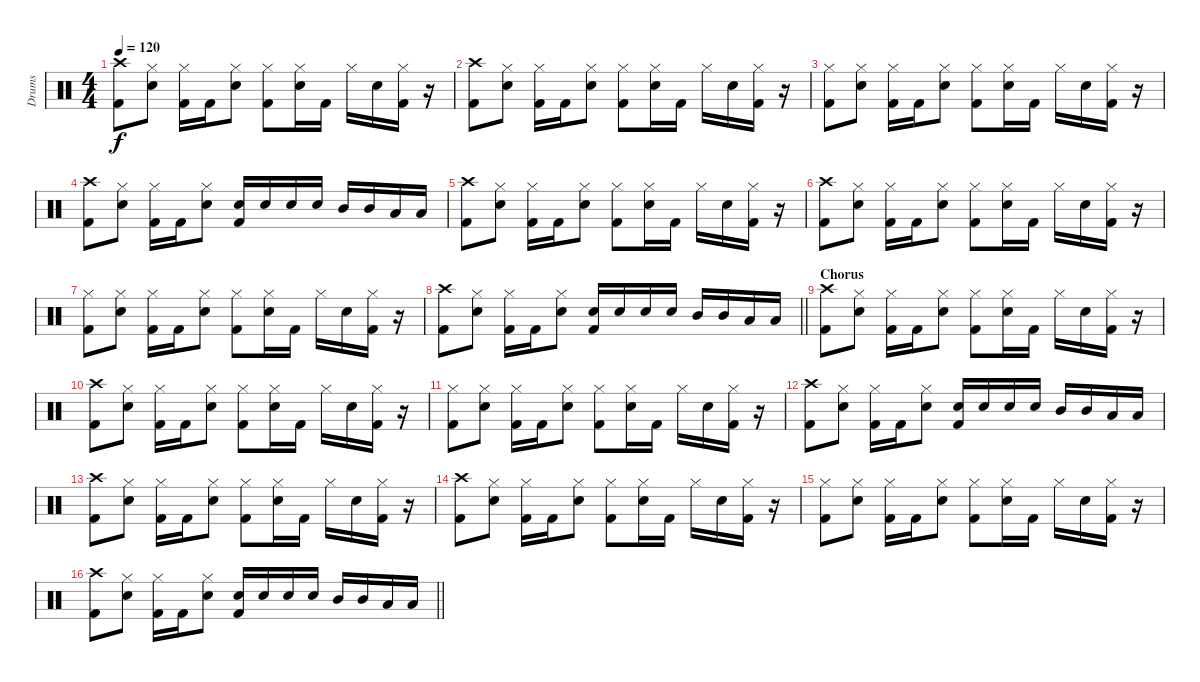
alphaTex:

\track ("Drums" "Drums") {instrument percussion}
\staff {score}
\articulation defaults
\ts (4 4)
\tempo 120
\clef neutral
\ks c
("Crash high (hit)" "Kick (hit) 2").8{dy f} ("Hi-Hat (closed)" "Snare (hit) 2").8 ("Hi-Hat (closed)" "Kick (hit) 2").16 "Kick (hit) 2".16 ("Hi-Hat (closed)" "Snare (hit) 2").8 ("Hi-Hat (closed)" "Kick (hit) 2").8 ("Hi-Hat (closed)" "Snare (hit) 2").16 "Kick (hit) 2".16 "Hi-Hat (closed)".16 "Snare (hit) 2".16 ("Hi-Hat (closed)" "Kick (hit) 2").16 r.16 |
("Crash high (hit)" "Kick (hit) 2").8 ("Hi-Hat (closed)" "Snare (hit) 2").8 ("Hi-Hat (closed)" "Kick (hit) 2").16 "Kick (hit) 2".16 ("Hi-Hat (closed)" "Snare (hit) 2").8 ("Hi-Hat (closed)" "Kick (hit) 2").8 ("Hi-Hat (closed)" "Snare (hit) 2").16 "Kick (hit) 2".16 "Hi-Hat (closed)".16 "Snare (hit) 2".16 ("Hi-Hat (closed)" "Kick (hit) 2").16 r.16 |
("Hi-Hat (closed)" "Kick (hit) 2").8 ("Hi-Hat (closed)" "Snare (hit) 2").8 ("Hi-Hat (closed)" "Kick (hit) 2").16 "Kick (hit) 2".16 ("Hi-Hat (closed)" "Snare (hit) 2").8 ("Hi-Hat (closed)" "Kick (hit) 2").8 ("Hi-Hat (closed)" "Snare (hit) 2").16 "Kick (hit) 2".16 "Hi-Hat (closed)".16 "Snare (hit) 2".16 ("Hi-Hat (closed)" "Kick (hit) 2").16 r.16 |
("Crash high (hit)" "Kick (hit) 2").8 ("Hi-Hat (closed)" "Snare (hit) 2").8 ("Hi-Hat (closed)" "Kick (hit) 2").16 "Kick (hit) 2".16 ("Hi-Hat (closed)" "Snare (hit) 2").8 ("Snare (hit) 2" "Kick (hit) 2").16 "Snare (hit) 2".16 "Snare (hit) 2".16 "Snare (hit) 2".16 "Mid Tom (hit)".16 "Mid Tom (hit)".16 "Low Tom (hit)".16 "Low Tom (hit)".16 |
("Crash high (hit)" "Kick (hit) 2").8 ("Hi-Hat (closed)" "Snare (hit) 2").8 ("Hi-Hat (closed)" "Kick (hit) 2").16 "Kick (hit) 2".16 ("Hi-Hat (closed)" "Snare (hit) 2").8 ("Hi-Hat (closed)" "Kick (hit) 2").8 ("Hi-Hat (closed)" "Snare (hit) 2").16 "Kick (hit) 2".16 "Hi-Hat (closed)".16 "Snare (hit) 2".16 ("Hi-Hat (closed)" "Kick (hit) 2").16 r.16 |
("Crash high (hit)" "Kick (hit) 2").8 ("Hi-Hat (closed)" "Snare (hit) 2").8 ("Hi-Hat (closed)" "Kick (hit) 2").16 "Kick (hit) 2".16 ("Hi-Hat (closed)" "Snare (hit) 2").8 ("Hi-Hat (closed)" "Kick (hit) 2").8 ("Hi-Hat (closed)" "Snare (hit) 2").16 "Kick (hit) 2".16 "Hi-Hat (closed)".16 "Snare (hit) 2".16 ("Hi-Hat (closed)" "Kick (hit) 2").16 r.16 |
("Hi-Hat (closed)" "Kick (hit) 2").8 ("Hi-Hat (closed)" "Snare (hit) 2").8 ("Hi-Hat (closed)" "Kick (hit) 2").16 "Kick (hit) 2".16 ("Hi-Hat (closed)" "Snare (hit) 2").8 ("Hi-Hat (closed)" "Kick (hit) 2").8 ("Hi-Hat (closed)" "Snare (hit) 2").16 "Kick (hit) 2".16 "Hi-Hat (closed)".16 "Snare (hit) 2".16 ("Hi-Hat (closed)" "Kick (hit) 2").16 r.16 |
\barLineRight lightlight
("Crash high (hit)" "Kick (hit) 2").8 ("Hi-Hat (closed)" "Snare (hit) 2").8 ("Hi-Hat (closed)" "Kick (hit) 2").16 "Kick (hit) 2".16 ("Hi-Hat (closed)" "Snare (hit) 2").8 ("Snare (hit) 2" "Kick (hit) 2").16 "Snare (hit) 2".16 "Snare (hit) 2".16 "Snare (hit) 2".16 "Mid Tom (hit)".16 "Mid Tom (hit)".16 "Low Tom (hit)".16 "Low Tom (hit)".16 |
\section ("" "Chorus")
("Crash high (hit)" "Kick (hit) 2").8 ("Hi-Hat (closed)" "Snare (hit) 2").8 ("Hi-Hat (closed)" "Kick (hit) 2").16 "Kick (hit) 2".16 ("Hi-Hat (closed)" "Snare (hit) 2").8 ("Hi-Hat (closed)" "Kick (hit) 2").8 ("Hi-Hat (closed)" "Snare (hit) 2").16 "Kick (hit) 2".16 "Hi-Hat (closed)".16 "Snare (hit) 2".16 ("Hi-Hat (closed)" "Kick (hit) 2").16 r.16 |
("Crash high (hit)" "Kick (hit) 2").8 ("Hi-Hat (closed)" "Snare (hit) 2").8 ("Hi-Hat (closed)" "Kick (hit) 2").16 "Kick (hit) 2".16 ("Hi-Hat (closed)" "Snare (hit) 2").8 ("Hi-Hat (closed)" "Kick (hit) 2").8 ("Hi-Hat (closed)" "Snare (hit) 2").16 "Kick (hit) 2".16 "Hi-Hat (closed)".16 "Snare (hit) 2".16 ("Hi-Hat (closed)" "Kick (hit) 2").16 r.16 |
("Hi-Hat (closed)" "Kick (hit) 2").8 ("Hi-Hat (closed)" "Snare (hit) 2").8 ("Hi-Hat (closed)" "Kick (hit) 2").16 "Kick (hit) 2".16 ("Hi-Hat (closed)" "Snare (hit) 2").8 ("Hi-Hat (closed)" "Kick (hit) 2").8 ("Hi-Hat (closed)" "Snare (hit) 2").16 "Kick (hit) 2".16 "Hi-Hat (closed)".16 "Snare (hit) 2".16 ("Hi-Hat (closed)" "Kick (hit) 2").16 r.16 |
("Crash high (hit)" "Kick (hit) 2").8 ("Hi-Hat (closed)" "Snare (hit) 2").8 ("Hi-Hat (closed)" "Kick (hit) 2").16 "Kick (hit) 2".16 ("Hi-Hat (closed)" "Snare (hit) 2").8 ("Snare (hit) 2" "Kick (hit) 2").16 "Snare (hit) 2".16 "Snare (hit) 2".16 "Snare (hit) 2".16 "Mid Tom (hit)".16 "Mid Tom (hit)".16 "Low Tom (hit)".16 "Low Tom (hit)".16 |
("Crash high (hit)" "Kick (hit) 2").8 ("Hi-Hat (closed)" "Snare (hit) 2").8 ("Hi-Hat (closed)" "Kick (hit) 2").16 "Kick (hit) 2".16 ("Hi-Hat (closed)" "Snare (hit) 2").8 ("Hi-Hat (closed)" "Kick (hit) 2").8 ("Hi-Hat (closed)" "Snare (hit) 2").16 "Kick (hit) 2".16 "Hi-Hat (closed)".16 "Snare (hit) 2".16 ("Hi-Hat (closed)" "Kick (hit) 2").16 r.16 |
("Crash high (hit)" "Kick (hit) 2").8 ("Hi-Hat (closed)" "Snare (hit) 2").8 ("Hi-Hat (closed)" "Kick (hit) 2").16 "Kick (hit) 2".16 ("Hi-Hat (closed)" "Snare (hit) 2").8 ("Hi-Hat (closed)" "Kick (hit) 2").8 ("Hi-Hat (closed)" "Snare (hit) 2").16 "Kick (hit) 2".16 "Hi-Hat (closed)".16 "Snare (hit) 2".16 ("Hi-Hat (closed)" "Kick (hit) 2").16 r.16 |
("Hi-Hat (closed)" "Kick (hit) 2").8 ("Hi-Hat (closed)" "Snare (hit) 2").8 ("Hi-Hat (closed)" "Kick (hit) 2").16 "Kick (hit) 2".16 ("Hi-Hat (closed)" "Snare (hit) 2").8 ("Hi-Hat (closed)" "Kick (hit) 2").8 ("Hi-Hat (closed)" "Snare (hit) 2").16 "Kick (hit) 2".16 "Hi-Hat (closed)".16 "Snare (hit) 2".16 ("Hi-Hat (closed)" "Kick (hit) 2").16 r.16 |
\barLineRight lightlight
("Crash high (hit)" "Kick (hit) 2").8 ("Hi-Hat (closed)" "Snare (hit) 2").8 ("Hi-Hat (closed)" "Kick (hit) 2").16 "Kick (hit) 2".16 ("Hi-Hat (closed)" "Snare (hit) 2").8 ("Snare (hit) 2" "Kick (hit) 2").16 "Snare (hit) 2".16 "Snare (hit) 2".16 "Snare (hit) 2".16 "Mid Tom (hit)".16 "Mid Tom (hit)".16 "Low Tom (hit)".16 "Low Tom (hit)".16
